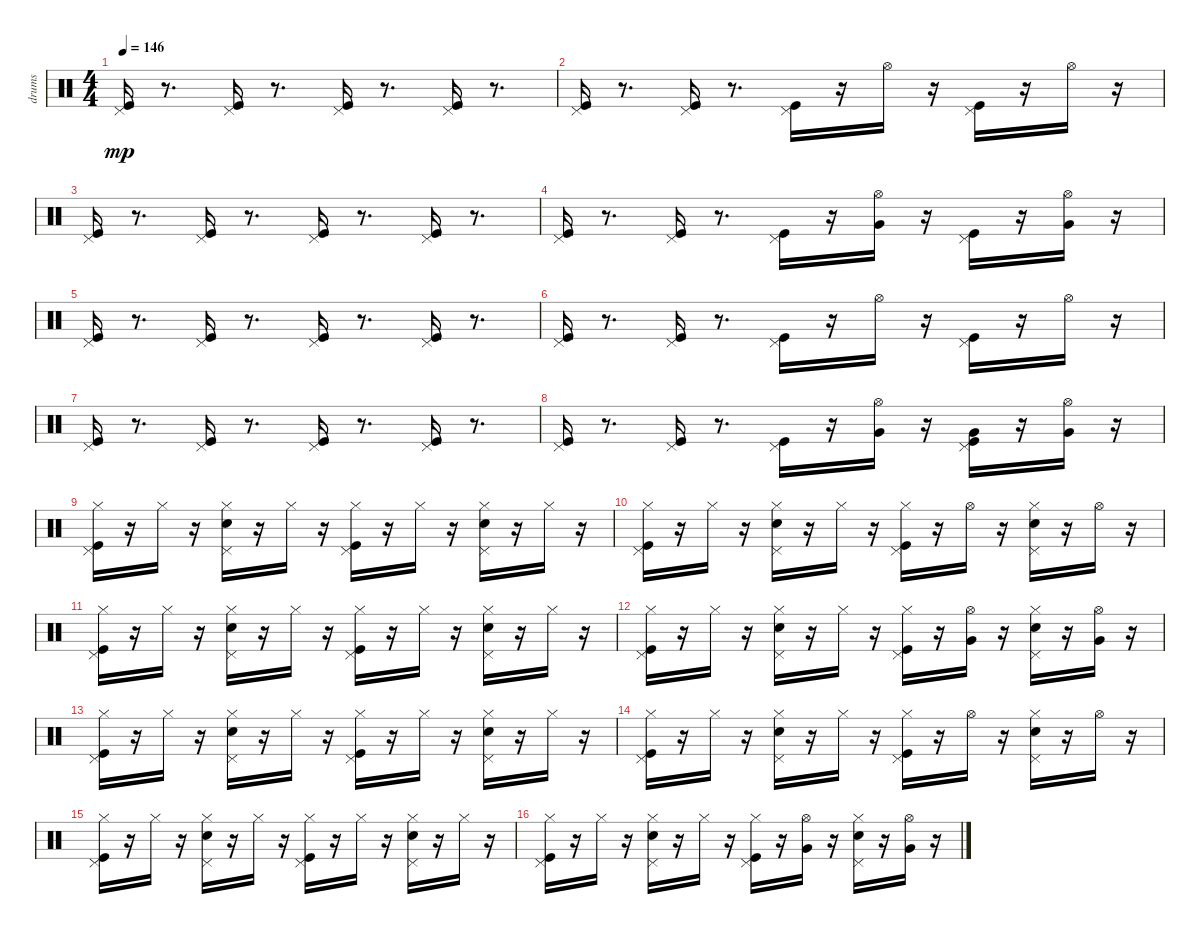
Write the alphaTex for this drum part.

\track ("drums" "drums") {instrument percussion}
\staff {score}
\articulation defaults
\ts (4 4)
\tempo 146
\clef neutral
\ks c
("Kick (hit)" "Pedal Hi-Hat (hit)").16{dy mp} r.8{d} ("Kick (hit)" "Pedal Hi-Hat (hit)").16 r.8{d} ("Kick (hit)" "Pedal Hi-Hat (hit)").16 r.8{d} ("Kick (hit)" "Pedal Hi-Hat (hit)").16 r.8{d} |
("Kick (hit)" "Pedal Hi-Hat (hit)").16 r.8{d} ("Kick (hit)" "Pedal Hi-Hat (hit)").16 r.8{d} ("Kick (hit)" "Pedal Hi-Hat (hit)").16 r.16 "Hi-Hat (open)".16 r.16 ("Kick (hit)" "Pedal Hi-Hat (hit)").16 r.16 "Hi-Hat (open)".16 r.16 |
("Kick (hit)" "Pedal Hi-Hat (hit)").16 r.8{d} ("Kick (hit)" "Pedal Hi-Hat (hit)").16 r.8{d} ("Kick (hit)" "Pedal Hi-Hat (hit)").16 r.8{d} ("Kick (hit)" "Pedal Hi-Hat (hit)").16 r.8{d} |
("Kick (hit)" "Pedal Hi-Hat (hit)").16 r.8{d} ("Kick (hit)" "Pedal Hi-Hat (hit)").16 r.8{d} ("Kick (hit)" "Pedal Hi-Hat (hit)").16 r.16 ("Hi-Hat (open)" "Very Low Tom (hit)").16 r.16 ("Kick (hit)" "Pedal Hi-Hat (hit)").16 r.16 ("Hi-Hat (open)" "Very Low Tom (hit)").16 r.16 |
("Kick (hit)" "Pedal Hi-Hat (hit)").16 r.8{d} ("Kick (hit)" "Pedal Hi-Hat (hit)").16 r.8{d} ("Kick (hit)" "Pedal Hi-Hat (hit)").16 r.8{d} ("Kick (hit)" "Pedal Hi-Hat (hit)").16 r.8{d} |
("Kick (hit)" "Pedal Hi-Hat (hit)").16 r.8{d} ("Kick (hit)" "Pedal Hi-Hat (hit)").16 r.8{d} ("Kick (hit)" "Pedal Hi-Hat (hit)").16 r.16 "Hi-Hat (open)".16 r.16 ("Kick (hit)" "Pedal Hi-Hat (hit)").16 r.16 "Hi-Hat (open)".16 r.16 |
("Kick (hit)" "Pedal Hi-Hat (hit)").16 r.8{d} ("Kick (hit)" "Pedal Hi-Hat (hit)").16 r.8{d} ("Kick (hit)" "Pedal Hi-Hat (hit)").16 r.8{d} ("Kick (hit)" "Pedal Hi-Hat (hit)").16 r.8{d} |
("Kick (hit)" "Pedal Hi-Hat (hit)").16 r.8{d} ("Kick (hit)" "Pedal Hi-Hat (hit)").16 r.8{d} ("Kick (hit)" "Pedal Hi-Hat (hit)").16 r.16 ("Hi-Hat (open)" "Very Low Tom (hit)").16 r.16 ("Kick (hit)" "Pedal Hi-Hat (hit)" "Very Low Tom (hit)").16 r.16 ("Hi-Hat (open)" "Very Low Tom (hit)").16 r.16 |
("Kick (hit)" "Pedal Hi-Hat (hit)" "Hi-Hat (closed)").16 r.16 "Hi-Hat (closed)".16 r.16 ("Pedal Hi-Hat (hit)" "Hi-Hat (closed)" "Snare (hit) 2").16 r.16 "Hi-Hat (closed)".16 r.16 ("Kick (hit)" "Pedal Hi-Hat (hit)" "Hi-Hat (closed)").16 r.16 "Hi-Hat (closed)".16 r.16 ("Pedal Hi-Hat (hit)" "Hi-Hat (closed)" "Snare (hit) 2").16 r.16 "Hi-Hat (closed)".16 r.16 |
("Kick (hit)" "Pedal Hi-Hat (hit)" "Hi-Hat (closed)").16 r.16 "Hi-Hat (closed)".16 r.16 ("Pedal Hi-Hat (hit)" "Hi-Hat (closed)" "Snare (hit) 2").16 r.16 "Hi-Hat (closed)".16 r.16 ("Kick (hit)" "Pedal Hi-Hat (hit)" "Hi-Hat (closed)").16 r.16 "Hi-Hat (open)".16 r.16 ("Pedal Hi-Hat (hit)" "Hi-Hat (closed)" "Snare (hit) 2").16 r.16 "Hi-Hat (open)".16 r.16 |
("Kick (hit)" "Pedal Hi-Hat (hit)" "Hi-Hat (closed)").16 r.16 "Hi-Hat (closed)".16 r.16 ("Pedal Hi-Hat (hit)" "Hi-Hat (closed)" "Snare (hit) 2").16 r.16 "Hi-Hat (closed)".16 r.16 ("Kick (hit)" "Pedal Hi-Hat (hit)" "Hi-Hat (closed)").16 r.16 "Hi-Hat (closed)".16 r.16 ("Pedal Hi-Hat (hit)" "Hi-Hat (closed)" "Snare (hit) 2").16 r.16 "Hi-Hat (closed)".16 r.16 |
("Kick (hit)" "Pedal Hi-Hat (hit)" "Hi-Hat (closed)").16 r.16 "Hi-Hat (closed)".16 r.16 ("Pedal Hi-Hat (hit)" "Hi-Hat (closed)" "Snare (hit) 2").16 r.16 "Hi-Hat (closed)".16 r.16 ("Kick (hit)" "Pedal Hi-Hat (hit)" "Hi-Hat (closed)").16 r.16 ("Hi-Hat (open)" "Very Low Tom (hit)").16 r.16 ("Pedal Hi-Hat (hit)" "Hi-Hat (closed)" "Snare (hit) 2").16 r.16 ("Hi-Hat (open)" "Very Low Tom (hit)").16 r.16 |
("Kick (hit)" "Pedal Hi-Hat (hit)" "Hi-Hat (closed)").16 r.16 "Hi-Hat (closed)".16 r.16 ("Pedal Hi-Hat (hit)" "Hi-Hat (closed)" "Snare (hit) 2").16 r.16 "Hi-Hat (closed)".16 r.16 ("Kick (hit)" "Pedal Hi-Hat (hit)" "Hi-Hat (closed)").16 r.16 "Hi-Hat (closed)".16 r.16 ("Pedal Hi-Hat (hit)" "Hi-Hat (closed)" "Snare (hit) 2").16 r.16 "Hi-Hat (closed)".16 r.16 |
("Kick (hit)" "Pedal Hi-Hat (hit)" "Hi-Hat (closed)").16 r.16 "Hi-Hat (closed)".16 r.16 ("Pedal Hi-Hat (hit)" "Hi-Hat (closed)" "Snare (hit) 2").16 r.16 "Hi-Hat (closed)".16 r.16 ("Kick (hit)" "Pedal Hi-Hat (hit)" "Hi-Hat (closed)").16 r.16 "Hi-Hat (open)".16 r.16 ("Pedal Hi-Hat (hit)" "Hi-Hat (closed)" "Snare (hit) 2").16 r.16 "Hi-Hat (open)".16 r.16 |
("Kick (hit)" "Pedal Hi-Hat (hit)" "Hi-Hat (closed)").16 r.16 "Hi-Hat (closed)".16 r.16 ("Pedal Hi-Hat (hit)" "Hi-Hat (closed)" "Snare (hit) 2").16 r.16 "Hi-Hat (closed)".16 r.16 ("Kick (hit)" "Pedal Hi-Hat (hit)" "Hi-Hat (closed)").16 r.16 "Hi-Hat (closed)".16 r.16 ("Pedal Hi-Hat (hit)" "Hi-Hat (closed)" "Snare (hit) 2").16 r.16 "Hi-Hat (closed)".16 r.16 |
("Kick (hit)" "Pedal Hi-Hat (hit)" "Hi-Hat (closed)").16 r.16 "Hi-Hat (closed)".16 r.16 ("Pedal Hi-Hat (hit)" "Hi-Hat (closed)" "Snare (hit) 2").16 r.16 "Hi-Hat (closed)".16 r.16 ("Kick (hit)" "Pedal Hi-Hat (hit)" "Hi-Hat (closed)").16 r.16 ("Hi-Hat (open)" "Very Low Tom (hit)").16 r.16 ("Pedal Hi-Hat (hit)" "Hi-Hat (closed)" "Snare (hit) 2").16 r.16 ("Hi-Hat (open)" "Very Low Tom (hit)").16 r.16
